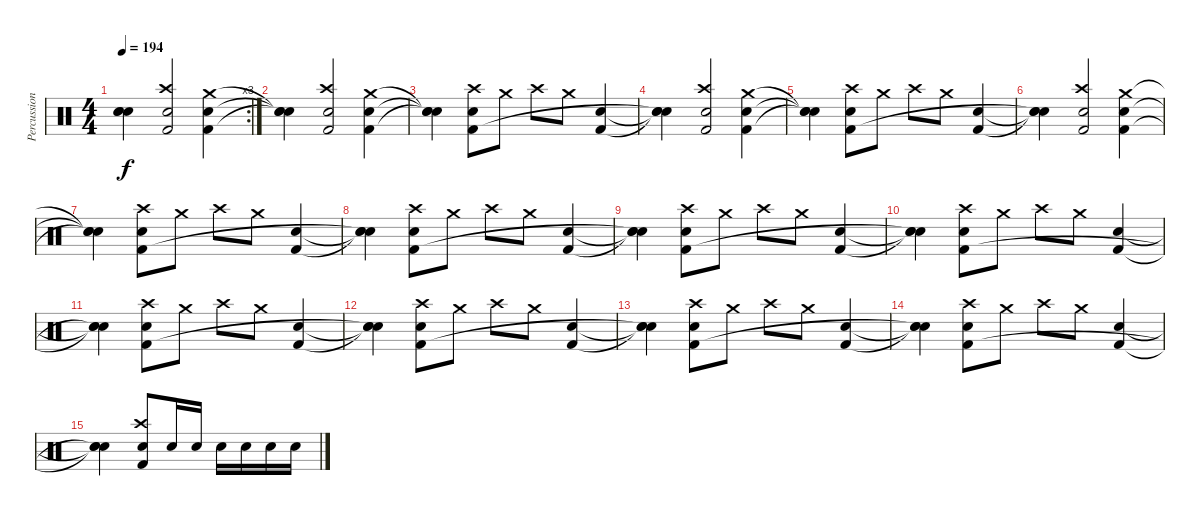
\track ("Percussions" "Percussion") {instrument percussion}
\staff {score}
\articulation defaults
\rc 3
\ts (4 4)
\tempo 194
\clef neutral
\ks c
("Snare (hit)"{t} "Snare (hit)"{t} "Snare (hit)"{t}).4{dy f} ("Crash high (hit)" "Snare (hit) 2" "Kick (hit) 2").2 ("Crash medium (hit)" "Snare (hit) 2" "Kick (hit) 2").4 |
("Snare (hit)"{t} "Snare (hit)"{t} "Snare (hit)"{t}).4 ("Crash high (hit)" "Snare (hit) 2" "Kick (hit) 2").2 ("Crash medium (hit)" "Snare (hit) 2" "Kick (hit) 2").4 |
("Snare (hit)"{t} "Snare (hit)"{t} "Snare (hit)"{t}).4 ("Crash high (hit)" "Snare (hit) 2" "Kick (hit) 2").8 "Crash medium (hit)".8 "Crash high (hit)".8 "Crash medium (hit)".8 ("Snare (hit) 2" "Kick (hit) 2").4 |
("Snare (hit)"{t} "Snare (hit)"{t} "Snare (hit)"{t}).4 ("Crash high (hit)" "Snare (hit) 2" "Kick (hit) 2").2 ("Crash medium (hit)" "Snare (hit) 2" "Kick (hit) 2").4 |
("Snare (hit)"{t} "Snare (hit)"{t} "Snare (hit)"{t}).4 ("Crash high (hit)" "Snare (hit) 2" "Kick (hit) 2").8 "Crash medium (hit)".8 "Crash high (hit)".8 "Crash medium (hit)".8 ("Snare (hit) 2" "Kick (hit) 2").4 |
("Snare (hit)"{t} "Snare (hit)"{t} "Snare (hit)"{t}).4 ("Crash high (hit)" "Snare (hit) 2" "Kick (hit) 2").2 ("Crash medium (hit)" "Snare (hit) 2" "Kick (hit) 2").4 |
("Snare (hit)"{t} "Snare (hit)"{t} "Snare (hit)"{t}).4 ("Crash high (hit)" "Snare (hit) 2" "Kick (hit) 2").8 "Crash medium (hit)".8 "Crash high (hit)".8 "Crash medium (hit)".8 ("Snare (hit) 2" "Kick (hit) 2").4 |
("Snare (hit)"{t} "Snare (hit)"{t} "Snare (hit)"{t}).4 ("Crash high (hit)" "Snare (hit) 2" "Kick (hit) 2").8 "Crash medium (hit)".8 "Crash high (hit)".8 "Crash medium (hit)".8 ("Snare (hit) 2" "Kick (hit) 2").4 |
("Snare (hit)"{t} "Snare (hit)"{t} "Snare (hit)"{t}).4 ("Crash high (hit)" "Snare (hit) 2" "Kick (hit) 2").8 "Crash medium (hit)".8 "Crash high (hit)".8 "Crash medium (hit)".8 ("Snare (hit) 2" "Kick (hit) 2").4 |
("Snare (hit)"{t} "Snare (hit)"{t} "Snare (hit)"{t}).4 ("Crash high (hit)" "Snare (hit) 2" "Kick (hit) 2").8 "Crash medium (hit)".8 "Crash high (hit)".8 "Crash medium (hit)".8 ("Snare (hit) 2" "Kick (hit) 2").4 |
("Snare (hit)"{t} "Snare (hit)"{t} "Snare (hit)"{t}).4 ("Crash high (hit)" "Snare (hit) 2" "Kick (hit) 2").8 "Crash medium (hit)".8 "Crash high (hit)".8 "Crash medium (hit)".8 ("Snare (hit) 2" "Kick (hit) 2").4 |
("Snare (hit)"{t} "Snare (hit)"{t} "Snare (hit)"{t}).4 ("Crash high (hit)" "Snare (hit) 2" "Kick (hit) 2").8 "Crash medium (hit)".8 "Crash high (hit)".8 "Crash medium (hit)".8 ("Snare (hit) 2" "Kick (hit) 2").4 |
("Snare (hit)"{t} "Snare (hit)"{t} "Snare (hit)"{t}).4 ("Crash high (hit)" "Snare (hit) 2" "Kick (hit) 2").8 "Crash medium (hit)".8 "Crash high (hit)".8 "Crash medium (hit)".8 ("Snare (hit) 2" "Kick (hit) 2").4 |
("Snare (hit)"{t} "Snare (hit)"{t} "Snare (hit)"{t}).4 ("Crash high (hit)" "Snare (hit) 2" "Kick (hit) 2").8 "Crash medium (hit)".8 "Crash high (hit)".8 "Crash medium (hit)".8 ("Snare (hit) 2" "Kick (hit) 2").4 |
("Snare (hit)"{t} "Snare (hit)"{t} "Snare (hit)"{t}).4 ("Crash high (hit)" "Snare (hit) 2" "Kick (hit) 2").8 "Electric Snare (hit)".16 "Electric Snare (hit)".16 "Electric Snare (hit)".16 "Electric Snare (hit)".16 "Electric Snare (hit)".16 "Electric Snare (hit)".16
